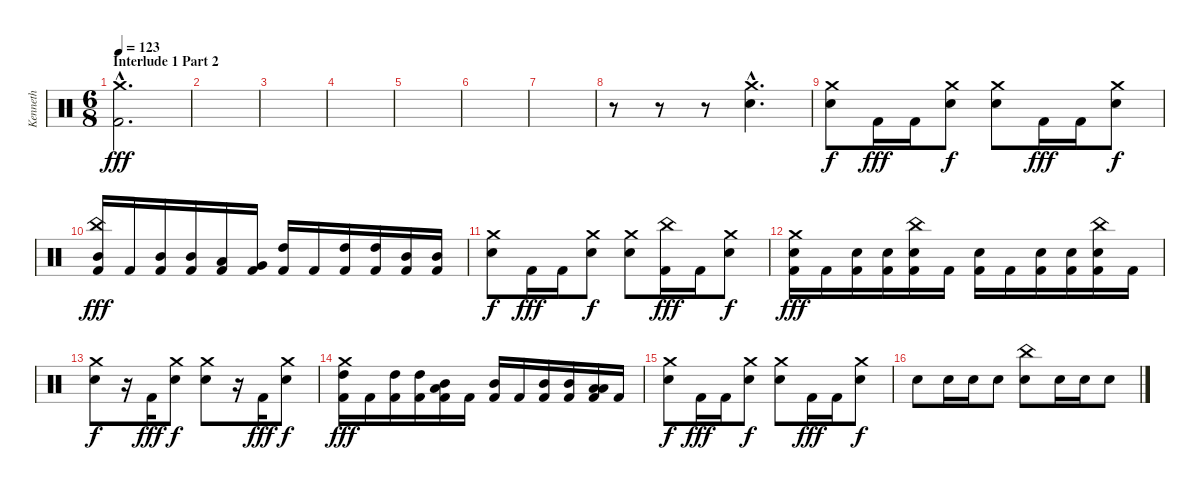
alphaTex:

\track ("Kenneth" "Kenneth") {instrument percussion}
\staff {score}
\articulation defaults
\ts (6 8)
\section ("" "Interlude 1 Part 2")
\tempo 123
\clef neutral
\ks c
("Crash medium (hit)"{hac} "Kick (hit) 2"{hac}).2{d dy fff} |
|
|
|
|
|
|
r.8 r.8 r.8 ("Crash medium (hit)"{hac} "Snare (hit) 2"{hac}).4{d} |
("Crash medium (hit)" "Snare (hit) 2").8{dy f} "Kick (hit) 2".16{dy fff} "Kick (hit) 2".16 ("Crash medium (hit)" "Snare (hit) 2").8{dy f} ("Crash medium (hit)" "Snare (hit) 2").8 "Kick (hit) 2".16{dy fff} "Kick (hit) 2".16 ("Crash medium (hit)" "Snare (hit) 2").8{dy f} |
("China (hit)" "Mid Tom (hit)" "Kick (hit) 2").16{dy fff} "Kick (hit) 2".16 ("Mid Tom (hit)" "Kick (hit) 2").16 ("Mid Tom (hit)" "Kick (hit) 2").16 ("Low Tom (hit)" "Kick (hit) 2").16 ("Very Low Tom (hit)" "Kick (hit) 2").16 ("High Tom (hit)" "Kick (hit) 2").16 "Kick (hit) 2".16 ("High Tom (hit)" "Kick (hit) 2").16 ("High Tom (hit)" "Kick (hit) 2").16 ("Mid Tom (hit)" "Kick (hit) 2").16 ("Mid Tom (hit)" "Kick (hit) 2").16 |
("Crash medium (hit)" "Snare (hit) 2").8{dy f} "Kick (hit) 2".16{dy fff} "Kick (hit) 2".16 ("Crash medium (hit)" "Snare (hit) 2").8{dy f} ("Crash medium (hit)" "Snare (hit) 2").8 ("China (hit)" "Kick (hit) 2").16{dy fff} "Kick (hit) 2".16 ("Crash medium (hit)" "Snare (hit) 2").8{dy f} |
("Crash medium (hit)" "Snare (hit) 2" "Kick (hit) 2").16{dy fff} "Kick (hit) 2".16 ("Snare (hit) 2" "Kick (hit) 2").16 ("Snare (hit) 2" "Kick (hit) 2").16 ("China (hit)" "Snare (hit) 2" "Kick (hit) 2").16 "Kick (hit) 2".16 ("Snare (hit) 2" "Kick (hit) 2").16 "Kick (hit) 2".16 ("Snare (hit) 2" "Kick (hit) 2").16 ("Snare (hit) 2" "Kick (hit) 2").16 ("China (hit)" "Snare (hit) 2" "Kick (hit) 2").16 "Kick (hit) 2".16 |
("Crash medium (hit)" "Snare (hit) 2").8{dy f} r.16 "Kick (hit) 2".16{dy fff} ("Crash medium (hit)" "Snare (hit) 2").8{dy f} ("Crash medium (hit)" "Snare (hit) 2").8 r.16 "Kick (hit) 2".16{dy fff} ("Crash medium (hit)" "Snare (hit) 2").8{dy f} |
("Crash medium (hit)" "High Tom (hit)" "Kick (hit) 2").16{dy fff} "Kick (hit) 2".16 ("High Tom (hit)" "Kick (hit) 2").16 ("High Tom (hit)" "Kick (hit) 2").16 ("Mid Tom (hit)" "Low Floor Tom (hit)" "Kick (hit) 2").16 "Kick (hit) 2".16 ("Mid Tom (hit)" "Kick (hit) 2").16 "Kick (hit) 2".16 ("Mid Tom (hit)" "Kick (hit) 2").16 ("Mid Tom (hit)" "Kick (hit) 2").16 ("Low Tom (hit)" "Low Floor Tom (hit)" "Kick (hit) 2").16 "Kick (hit) 2".16 |
("Crash medium (hit)" "Snare (hit) 2").8{dy f} "Kick (hit) 2".16{dy fff} "Kick (hit) 2".16 ("Crash medium (hit)" "Snare (hit) 2").8{dy f} ("Crash medium (hit)" "Snare (hit) 2").8 "Kick (hit) 2".16{dy fff} "Kick (hit) 2".16 ("Crash medium (hit)" "Snare (hit) 2").8{dy f} |
"Snare (hit) 2".8 "Snare (hit) 2".16 "Snare (hit) 2".16 "Snare (hit) 2".8 ("China (hit)" "Snare (hit) 2").8 "Snare (hit) 2".16 "Snare (hit) 2".16 "Snare (hit) 2".8
